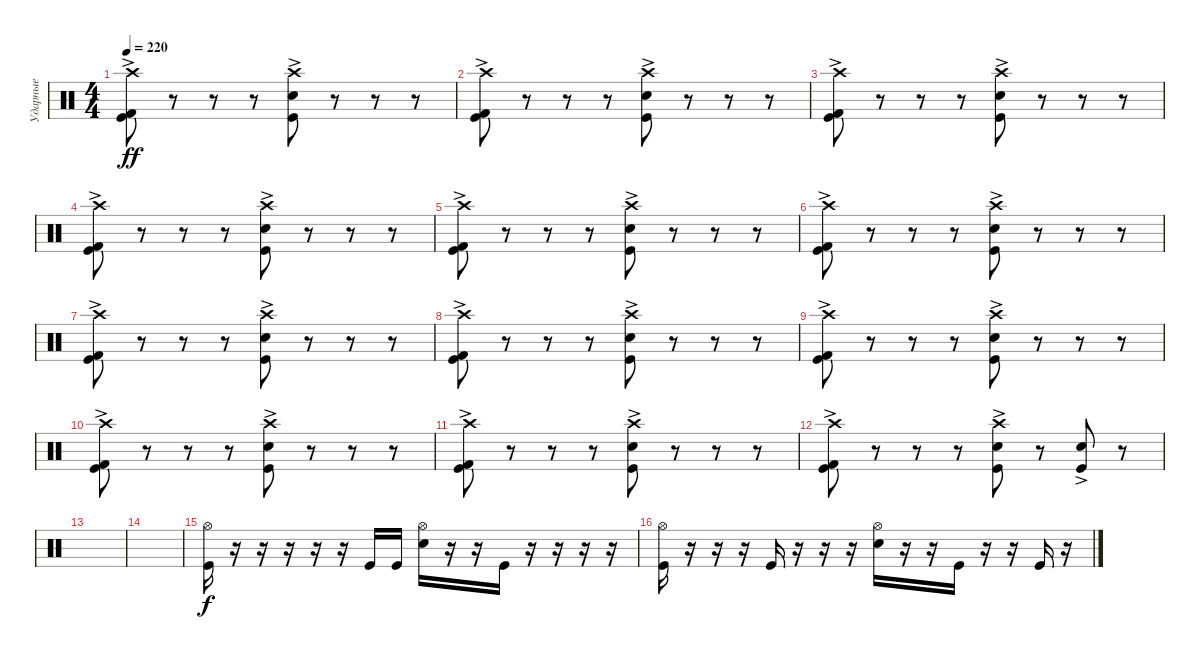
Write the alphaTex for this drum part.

\track ("Ударные" "Ударные") {instrument percussion}
\staff {score}
\articulation defaults
\ts (4 4)
\tempo 220
\clef neutral
\ks c
("Crash high (hit)"{ac} "Kick (hit)"{ac} "Kick (hit) 2"{ac}).8{dy ff} r.8 r.8 r.8 ("Crash high (hit)"{ac} "Electric Snare (hit)"{ac} "Kick (hit)").8 r.8 r.8 r.8 |
("Crash high (hit)"{ac} "Kick (hit)"{ac} "Kick (hit) 2"{ac}).8 r.8 r.8 r.8 ("Crash high (hit)"{ac} "Electric Snare (hit)"{ac} "Kick (hit)").8 r.8 r.8 r.8 |
("Crash high (hit)"{ac} "Kick (hit)"{ac} "Kick (hit) 2"{ac}).8 r.8 r.8 r.8 ("Crash high (hit)"{ac} "Electric Snare (hit)"{ac} "Kick (hit)").8 r.8 r.8 r.8 |
("Crash high (hit)"{ac} "Kick (hit)"{ac} "Kick (hit) 2"{ac}).8 r.8 r.8 r.8 ("Crash high (hit)"{ac} "Electric Snare (hit)"{ac} "Kick (hit)").8 r.8 r.8 r.8 |
("Crash high (hit)"{ac} "Kick (hit)"{ac} "Kick (hit) 2"{ac}).8 r.8 r.8 r.8 ("Crash high (hit)"{ac} "Electric Snare (hit)"{ac} "Kick (hit)").8 r.8 r.8 r.8 |
("Crash high (hit)"{ac} "Kick (hit)"{ac} "Kick (hit) 2"{ac}).8 r.8 r.8 r.8 ("Crash high (hit)"{ac} "Electric Snare (hit)"{ac} "Kick (hit)").8 r.8 r.8 r.8 |
("Crash high (hit)"{ac} "Kick (hit)"{ac} "Kick (hit) 2"{ac}).8 r.8 r.8 r.8 ("Crash high (hit)"{ac} "Electric Snare (hit)"{ac} "Kick (hit)").8 r.8 r.8 r.8 |
("Crash high (hit)"{ac} "Kick (hit)"{ac} "Kick (hit) 2"{ac}).8 r.8 r.8 r.8 ("Crash high (hit)"{ac} "Electric Snare (hit)"{ac} "Kick (hit)").8 r.8 r.8 r.8 |
("Crash high (hit)"{ac} "Kick (hit)"{ac} "Kick (hit) 2"{ac}).8 r.8 r.8 r.8 ("Crash high (hit)"{ac} "Electric Snare (hit)"{ac} "Kick (hit)").8 r.8 r.8 r.8 |
("Crash high (hit)"{ac} "Kick (hit)"{ac} "Kick (hit) 2"{ac}).8 r.8 r.8 r.8 ("Crash high (hit)"{ac} "Electric Snare (hit)"{ac} "Kick (hit)").8 r.8 r.8 r.8 |
("Crash high (hit)"{ac} "Kick (hit)"{ac} "Kick (hit) 2"{ac}).8 r.8 r.8 r.8 ("Crash high (hit)"{ac} "Electric Snare (hit)"{ac} "Kick (hit)").8 r.8 r.8 r.8 |
("Crash high (hit)"{ac} "Kick (hit)"{ac} "Kick (hit) 2"{ac}).8 r.8 r.8 r.8 ("Crash high (hit)"{ac} "Electric Snare (hit)"{ac} "Kick (hit)").8 r.8 ("Electric Snare (hit)"{ac} "Kick (hit)"{ac}).8 r.8 |
|
|
("Hi-Hat (open)" "Kick (hit)").16{dy f} r.16 r.16 r.16 r.16 r.16 "Kick (hit)".16 "Kick (hit)".16 ("Hi-Hat (open)" "Electric Snare (hit)").16 r.16 r.16 "Kick (hit)".16 r.16 r.16 r.16 r.16 |
("Hi-Hat (open)" "Kick (hit)").16 r.16 r.16 r.16 "Kick (hit)".16 r.16 r.16 r.16 ("Hi-Hat (open)" "Electric Snare (hit)").16 r.16 r.16 "Kick (hit)".16 r.16 r.16 "Kick (hit)".16 r.16
